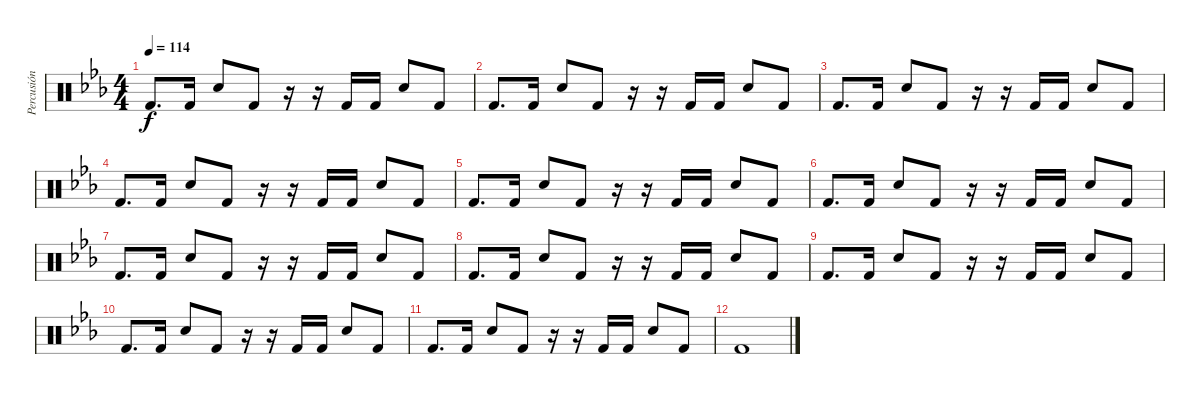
\track ("Percusión" "Percusión") {instrument percussion}
\staff {score}
\articulation defaults
\ts (4 4)
\tempo 114
\clef neutral
\ks eb "Kick (hit) 2".8{d dy f} "Kick (hit) 2".16 "Electric Snare (hit)".8 "Kick (hit) 2".8
r.16 r.16 "Kick (hit) 2".16 "Kick (hit) 2".16 "Electric Snare (hit)".8 "Kick (hit) 2".8 |
"Kick (hit) 2".8{d} "Kick (hit) 2".16 "Electric Snare (hit)".8 "Kick (hit) 2".8 r.16 r.16 "Kick (hit) 2".16 "Kick (hit) 2".16 "Electric Snare (hit)".8 "Kick (hit) 2".8 |
"Kick (hit) 2".8{d} "Kick (hit) 2".16 "Electric Snare (hit)".8 "Kick (hit) 2".8 r.16 r.16 "Kick (hit) 2".16 "Kick (hit) 2".16 "Electric Snare (hit)".8 "Kick (hit) 2".8 |
"Kick (hit) 2".8{d} "Kick (hit) 2".16 "Electric Snare (hit)".8 "Kick (hit) 2".8 r.16 r.16 "Kick (hit) 2".16 "Kick (hit) 2".16 "Electric Snare (hit)".8 "Kick (hit) 2".8 |
"Kick (hit) 2".8{d} "Kick (hit) 2".16 "Electric Snare (hit)".8 "Kick (hit) 2".8 r.16 r.16 "Kick (hit) 2".16 "Kick (hit) 2".16 "Electric Snare (hit)".8 "Kick (hit) 2".8 |
"Kick (hit) 2".8{d} "Kick (hit) 2".16 "Electric Snare (hit)".8 "Kick (hit) 2".8 r.16 r.16 "Kick (hit) 2".16 "Kick (hit) 2".16 "Electric Snare (hit)".8 "Kick (hit) 2".8 |
"Kick (hit) 2".8{d} "Kick (hit) 2".16 "Electric Snare (hit)".8 "Kick (hit) 2".8 r.16 r.16 "Kick (hit) 2".16 "Kick (hit) 2".16 "Electric Snare (hit)".8 "Kick (hit) 2".8 |
"Kick (hit) 2".8{d} "Kick (hit) 2".16 "Electric Snare (hit)".8 "Kick (hit) 2".8 r.16 r.16 "Kick (hit) 2".16 "Kick (hit) 2".16 "Electric Snare (hit)".8 "Kick (hit) 2".8 |
"Kick (hit) 2".8{d} "Kick (hit) 2".16 "Electric Snare (hit)".8 "Kick (hit) 2".8 r.16 r.16 "Kick (hit) 2".16 "Kick (hit) 2".16 "Electric Snare (hit)".8 "Kick (hit) 2".8 |
"Kick (hit) 2".8{d} "Kick (hit) 2".16 "Electric Snare (hit)".8 "Kick (hit) 2".8 r.16 r.16 "Kick (hit) 2".16 "Kick (hit) 2".16 "Electric Snare (hit)".8 "Kick (hit) 2".8 |
"Kick (hit) 2".8{d} "Kick (hit) 2".16 "Electric Snare (hit)".8 "Kick (hit) 2".8 r.16 r.16 "Kick (hit) 2".16 "Kick (hit) 2".16 "Electric Snare (hit)".8 "Kick (hit) 2".8 |
"Kick (hit) 2".1
